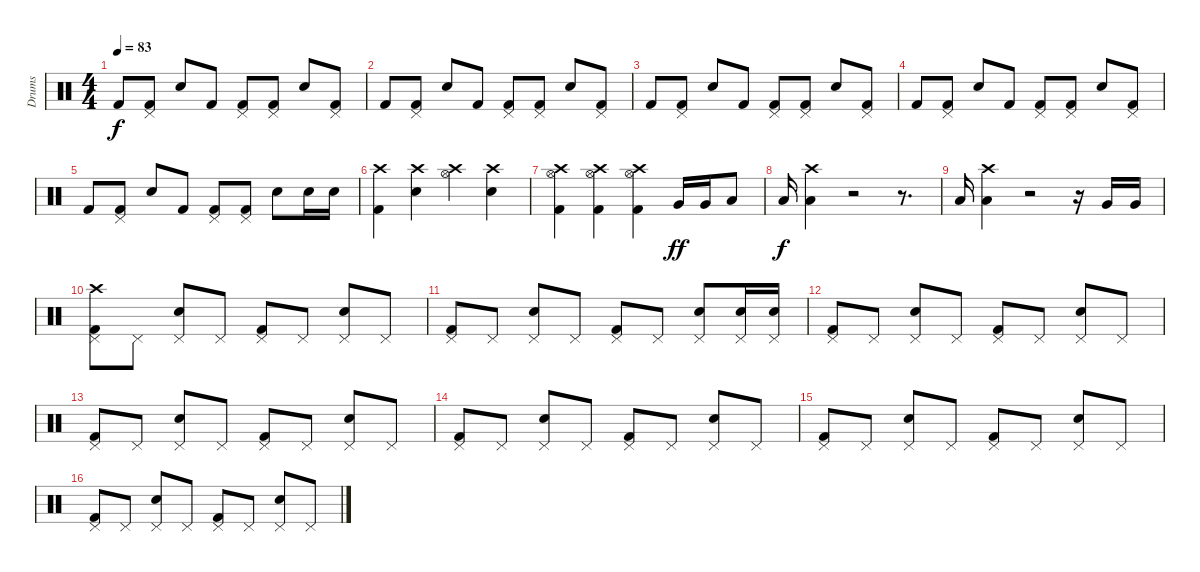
\track ("Drums" "Drums") {instrument percussion}
\staff {score}
\articulation defaults
\ts (4 4)
\tempo 83
\clef neutral
\ks c "Kick (hit) 2".8{dy f}
("Pedal Hi-Hat (hit)" "Kick (hit) 2").8 "Electric Snare (hit)".8 "Kick (hit) 2".8 ("Pedal Hi-Hat (hit)" "Kick (hit) 2").8 ("Pedal Hi-Hat (hit)" "Kick (hit) 2").8 "Electric Snare (hit)".8 ("Pedal Hi-Hat (hit)" "Kick (hit) 2").8 |
"Kick (hit) 2".8 ("Pedal Hi-Hat (hit)" "Kick (hit) 2").8 "Electric Snare (hit)".8 "Kick (hit) 2".8 ("Pedal Hi-Hat (hit)" "Kick (hit) 2").8 ("Pedal Hi-Hat (hit)" "Kick (hit) 2").8 "Electric Snare (hit)".8 ("Pedal Hi-Hat (hit)" "Kick (hit) 2").8 |
"Kick (hit) 2".8 ("Pedal Hi-Hat (hit)" "Kick (hit) 2").8 "Electric Snare (hit)".8 "Kick (hit) 2".8 ("Pedal Hi-Hat (hit)" "Kick (hit) 2").8 ("Pedal Hi-Hat (hit)" "Kick (hit) 2").8 "Electric Snare (hit)".8 ("Pedal Hi-Hat (hit)" "Kick (hit) 2").8 |
"Kick (hit) 2".8 ("Pedal Hi-Hat (hit)" "Kick (hit) 2").8 "Electric Snare (hit)".8 "Kick (hit) 2".8 ("Pedal Hi-Hat (hit)" "Kick (hit) 2").8 ("Pedal Hi-Hat (hit)" "Kick (hit) 2").8 "Electric Snare (hit)".8 ("Pedal Hi-Hat (hit)" "Kick (hit) 2").8 |
"Kick (hit) 2".8 ("Pedal Hi-Hat (hit)" "Kick (hit) 2").8 "Electric Snare (hit)".8 "Kick (hit) 2".8 ("Pedal Hi-Hat (hit)" "Kick (hit) 2").8 ("Pedal Hi-Hat (hit)" "Kick (hit) 2").8 "Electric Snare (hit)".8 "Electric Snare (hit)".16 "Electric Snare (hit)".16 |
("Crash high (hit)" "Kick (hit) 2").4 ("Electric Snare (hit)" "Crash high (hit)").4 ("Hi-Hat (open)" "Crash high (hit)").4 ("Electric Snare (hit)" "Crash high (hit)").4 |
("Kick (hit) 2" "Hi-Hat (open)" "Crash high (hit)").4 ("Kick (hit) 2" "Hi-Hat (open)" "Crash high (hit)").4 ("Kick (hit) 2" "Hi-Hat (open)" "Crash high (hit)").4 "Very Low Tom (hit)".16{dy ff} "Very Low Tom (hit)".16 "Low Tom (hit)".8 |
"Low Tom (hit)".16{dy f} ("Crash high (hit)" "Low Tom (hit)").4 r.2 r.8{d} |
"Low Tom (hit)".16 ("Crash high (hit)" "Low Tom (hit)").4 r.2 r.16 "Very Low Tom (hit)".16 "Very Low Tom (hit)".16 |
("Crash high (hit)" "Pedal Hi-Hat (hit)" "Kick (hit) 2").8 "Pedal Hi-Hat (hit)".8 ("Pedal Hi-Hat (hit)" "Electric Snare (hit)").8 "Pedal Hi-Hat (hit)".8 ("Pedal Hi-Hat (hit)" "Kick (hit) 2").8 "Pedal Hi-Hat (hit)".8 ("Pedal Hi-Hat (hit)" "Electric Snare (hit)").8 "Pedal Hi-Hat (hit)".8 |
("Pedal Hi-Hat (hit)" "Kick (hit) 2").8 "Pedal Hi-Hat (hit)".8 ("Pedal Hi-Hat (hit)" "Electric Snare (hit)").8 "Pedal Hi-Hat (hit)".8 ("Pedal Hi-Hat (hit)" "Kick (hit) 2").8 "Pedal Hi-Hat (hit)".8 ("Pedal Hi-Hat (hit)" "Electric Snare (hit)").8 ("Pedal Hi-Hat (hit)" "Electric Snare (hit)").16 ("Pedal Hi-Hat (hit)" "Electric Snare (hit)").16 |
("Pedal Hi-Hat (hit)" "Kick (hit) 2").8 "Pedal Hi-Hat (hit)".8 ("Pedal Hi-Hat (hit)" "Electric Snare (hit)").8 "Pedal Hi-Hat (hit)".8 ("Pedal Hi-Hat (hit)" "Kick (hit) 2").8 "Pedal Hi-Hat (hit)".8 ("Pedal Hi-Hat (hit)" "Electric Snare (hit)").8 "Pedal Hi-Hat (hit)".8 |
("Pedal Hi-Hat (hit)" "Kick (hit) 2").8 "Pedal Hi-Hat (hit)".8 ("Pedal Hi-Hat (hit)" "Electric Snare (hit)").8 "Pedal Hi-Hat (hit)".8 ("Pedal Hi-Hat (hit)" "Kick (hit) 2").8 "Pedal Hi-Hat (hit)".8 ("Pedal Hi-Hat (hit)" "Electric Snare (hit)").8 "Pedal Hi-Hat (hit)".8 |
("Pedal Hi-Hat (hit)" "Kick (hit) 2").8 "Pedal Hi-Hat (hit)".8 ("Pedal Hi-Hat (hit)" "Electric Snare (hit)").8 "Pedal Hi-Hat (hit)".8 ("Pedal Hi-Hat (hit)" "Kick (hit) 2").8 "Pedal Hi-Hat (hit)".8 ("Pedal Hi-Hat (hit)" "Electric Snare (hit)").8 "Pedal Hi-Hat (hit)".8 |
("Pedal Hi-Hat (hit)" "Kick (hit) 2").8 "Pedal Hi-Hat (hit)".8 ("Pedal Hi-Hat (hit)" "Electric Snare (hit)").8 "Pedal Hi-Hat (hit)".8 ("Pedal Hi-Hat (hit)" "Kick (hit) 2").8 "Pedal Hi-Hat (hit)".8 ("Pedal Hi-Hat (hit)" "Electric Snare (hit)").8 "Pedal Hi-Hat (hit)".8 |
("Pedal Hi-Hat (hit)" "Kick (hit) 2").8 "Pedal Hi-Hat (hit)".8 ("Pedal Hi-Hat (hit)" "Electric Snare (hit)").8 "Pedal Hi-Hat (hit)".8 ("Pedal Hi-Hat (hit)" "Kick (hit) 2").8 "Pedal Hi-Hat (hit)".8 ("Pedal Hi-Hat (hit)" "Electric Snare (hit)").8 "Pedal Hi-Hat (hit)".8
